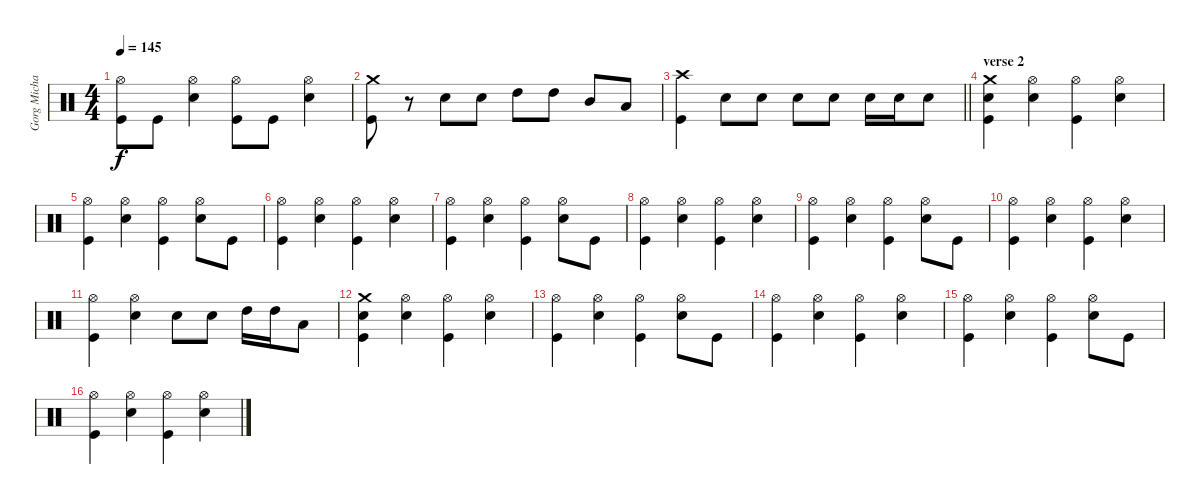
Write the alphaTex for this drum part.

\track ("Gorg Michael" "Gorg Micha") {instrument percussion}
\staff {score}
\articulation defaults
\ts (4 4)
\tempo 145
\clef neutral
\ks c
("Hi-Hat (open)" "Kick (hit)").8{dy f} "Kick (hit)".8 ("Hi-Hat (open)" "Snare (hit) 2").4 ("Hi-Hat (open)" "Kick (hit)").8 "Kick (hit)".8 ("Hi-Hat (open)" "Snare (hit) 2").4 |
("Crash medium (hit)" "Kick (hit)").8 r.8 "Snare (hit) 2".8 "Snare (hit) 2".8 "High Tom (hit)".8 "High Tom (hit)".8 "Mid Tom (hit)".8 "Low Tom (hit)".8 |
\barLineRight lightlight
("Crash high (hit)" "Kick (hit)").4 "Snare (hit) 2".8 "Snare (hit) 2".8 "Snare (hit) 2".8 "Snare (hit) 2".8 "Snare (hit) 2".16 "Snare (hit) 2".16 "Snare (hit) 2".8 |
\section ("" "verse 2")
("Crash medium (hit)" "Snare (hit)" "Kick (hit)").4 ("Hi-Hat (open)" "Snare (hit) 2").4 ("Hi-Hat (open)" "Kick (hit)").4 ("Hi-Hat (open)" "Snare (hit) 2").4 |
("Hi-Hat (open)" "Kick (hit)").4 ("Hi-Hat (open)" "Snare (hit) 2").4 ("Hi-Hat (open)" "Kick (hit)").4 ("Hi-Hat (open)" "Snare (hit) 2").8 "Kick (hit)".8 |
("Hi-Hat (open)" "Kick (hit)").4 ("Hi-Hat (open)" "Snare (hit) 2").4 ("Hi-Hat (open)" "Kick (hit)").4 ("Hi-Hat (open)" "Snare (hit) 2").4 |
("Hi-Hat (open)" "Kick (hit)").4 ("Hi-Hat (open)" "Snare (hit) 2").4 ("Hi-Hat (open)" "Kick (hit)").4 ("Hi-Hat (open)" "Snare (hit) 2").8 "Kick (hit)".8 |
("Hi-Hat (open)" "Kick (hit)").4 ("Hi-Hat (open)" "Snare (hit) 2").4 ("Hi-Hat (open)" "Kick (hit)").4 ("Hi-Hat (open)" "Snare (hit) 2").4 |
("Hi-Hat (open)" "Kick (hit)").4 ("Hi-Hat (open)" "Snare (hit) 2").4 ("Hi-Hat (open)" "Kick (hit)").4 ("Hi-Hat (open)" "Snare (hit) 2").8 "Kick (hit)".8 |
("Hi-Hat (open)" "Kick (hit)").4 ("Hi-Hat (open)" "Snare (hit) 2").4 ("Hi-Hat (open)" "Kick (hit)").4 ("Hi-Hat (open)" "Snare (hit) 2").4 |
("Hi-Hat (open)" "Kick (hit)").4 ("Hi-Hat (open)" "Snare (hit) 2").4 "Snare (hit) 2".8 "Snare (hit) 2".8 "High Tom (hit)".16 "High Tom (hit)".16 "Low Tom (hit)".8 |
("Crash medium (hit)" "Snare (hit)" "Kick (hit)").4 ("Hi-Hat (open)" "Snare (hit) 2").4 ("Hi-Hat (open)" "Kick (hit)").4 ("Hi-Hat (open)" "Snare (hit) 2").4 |
("Hi-Hat (open)" "Kick (hit)").4 ("Hi-Hat (open)" "Snare (hit) 2").4 ("Hi-Hat (open)" "Kick (hit)").4 ("Hi-Hat (open)" "Snare (hit) 2").8 "Kick (hit)".8 |
("Hi-Hat (open)" "Kick (hit)").4 ("Hi-Hat (open)" "Snare (hit) 2").4 ("Hi-Hat (open)" "Kick (hit)").4 ("Hi-Hat (open)" "Snare (hit) 2").4 |
("Hi-Hat (open)" "Kick (hit)").4 ("Hi-Hat (open)" "Snare (hit) 2").4 ("Hi-Hat (open)" "Kick (hit)").4 ("Hi-Hat (open)" "Snare (hit) 2").8 "Kick (hit)".8 |
("Hi-Hat (open)" "Kick (hit)").4 ("Hi-Hat (open)" "Snare (hit) 2").4 ("Hi-Hat (open)" "Kick (hit)").4 ("Hi-Hat (open)" "Snare (hit) 2").4
